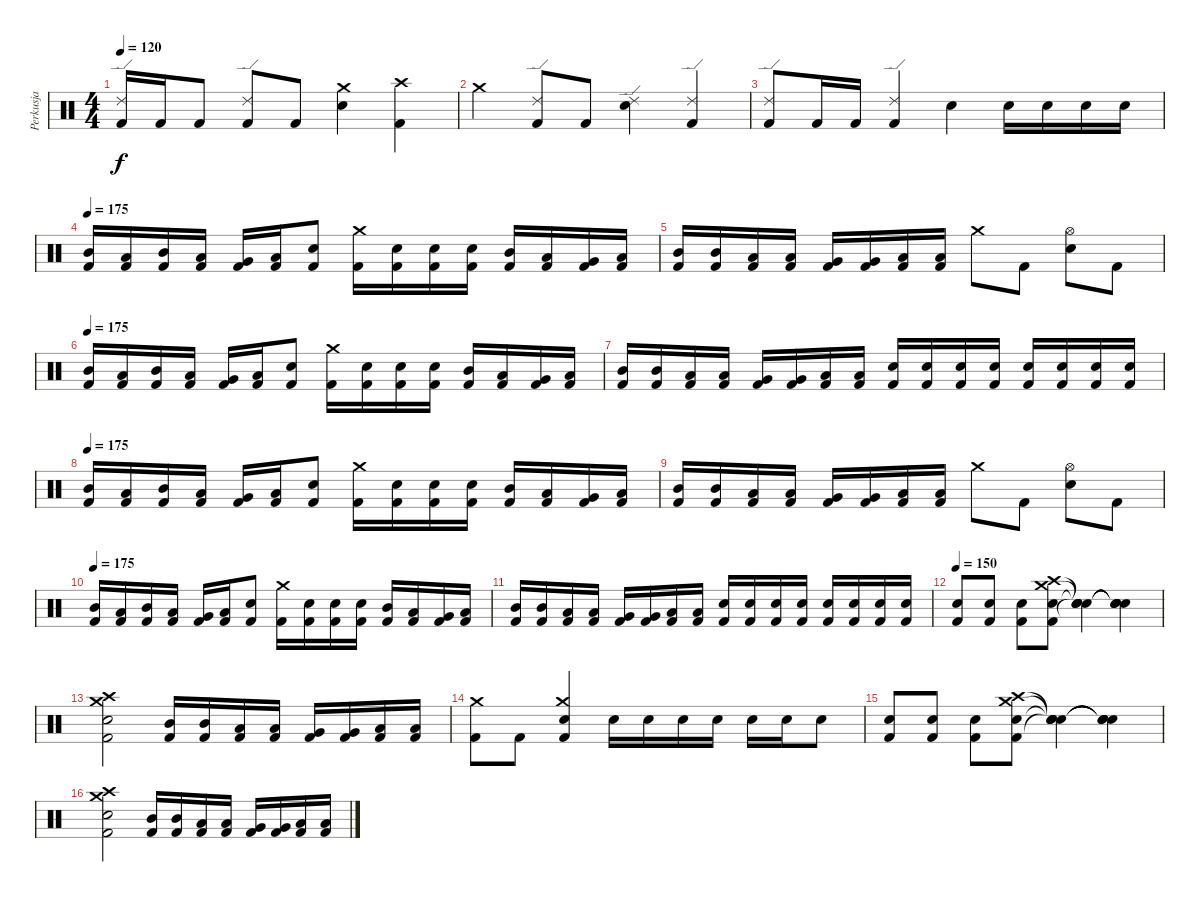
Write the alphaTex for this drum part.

\track ("Perkusja" "Perkusja") {instrument percussion}
\staff {score}
\articulation defaults
\ts (4 4)
\tempo 120
\clef neutral
\ks c
("Ride (edge) 2" "Kick (hit) 2").16{dy f} "Kick (hit) 2".16 "Kick (hit) 2".8 ("Ride (edge) 2" "Kick (hit) 2").8 "Kick (hit) 2".8 ("Crash medium (hit)" "Electric Snare (hit)").4 ("Crash high (hit)" "Kick (hit) 2").4 |
"Crash medium (hit)".4 ("Ride (edge) 2" "Kick (hit) 2").8 "Kick (hit) 2".8 ("Ride (edge) 2" "Electric Snare (hit)").4 ("Ride (edge) 2" "Kick (hit) 2").4 |
("Ride (edge) 2" "Kick (hit) 2").8 "Kick (hit) 2".16 "Kick (hit) 2".16 ("Ride (edge) 2" "Kick (hit) 2").4 "Electric Snare (hit)".4 "Electric Snare (hit)".16 "Electric Snare (hit)".16 "Electric Snare (hit)".16 "Electric Snare (hit)".16 |
\tempo 175
("Kick (hit) 2" "Mid Tom (hit)").16{volume 13} ("Kick (hit) 2" "Low Tom (hit)").16 ("Kick (hit) 2" "Mid Tom (hit)").16 ("Kick (hit) 2" "Low Tom (hit)").16 ("Kick (hit) 2" "Very Low Tom (hit)").16 ("Kick (hit) 2" "Low Tom (hit)").16 ("Electric Snare (hit)" "Kick (hit) 2").8 ("Crash medium (hit)" "Kick (hit) 2").16 ("Electric Snare (hit)" "Kick (hit) 2").16 ("Electric Snare (hit)" "Kick (hit) 2").16 ("Electric Snare (hit)" "Kick (hit) 2").16 ("Mid Tom (hit)" "Kick (hit) 2").16 ("Low Tom (hit)" "Kick (hit) 2").16 ("Very Low Tom (hit)" "Kick (hit) 2").16 ("Low Floor Tom (hit)" "Kick (hit) 2").16 |
("Mid Tom (hit)" "Kick (hit) 2").16 ("Mid Tom (hit)" "Kick (hit) 2").16 ("Low Tom (hit)" "Kick (hit) 2").16 ("Low Tom (hit)" "Kick (hit) 2").16 ("Very Low Tom (hit)" "Kick (hit) 2").16 ("Very Low Tom (hit)" "Kick (hit) 2").16 ("Low Floor Tom (hit)" "Kick (hit) 2").16 ("Low Floor Tom (hit)" "Kick (hit) 2").16 "Crash medium (hit)".8 "Kick (hit) 2".8 ("Hi-Hat (open)" "Electric Snare (hit)").8 "Kick (hit) 2".8 |
\tempo 175
("Kick (hit) 2" "Mid Tom (hit)").16{volume 13} ("Kick (hit) 2" "Low Tom (hit)").16 ("Kick (hit) 2" "Mid Tom (hit)").16 ("Kick (hit) 2" "Low Tom (hit)").16 ("Kick (hit) 2" "Very Low Tom (hit)").16 ("Kick (hit) 2" "Low Tom (hit)").16 ("Electric Snare (hit)" "Kick (hit) 2").8 ("Crash medium (hit)" "Kick (hit) 2").16 ("Electric Snare (hit)" "Kick (hit) 2").16 ("Electric Snare (hit)" "Kick (hit) 2").16 ("Electric Snare (hit)" "Kick (hit) 2").16 ("Mid Tom (hit)" "Kick (hit) 2").16 ("Low Tom (hit)" "Kick (hit) 2").16 ("Very Low Tom (hit)" "Kick (hit) 2").16 ("Low Floor Tom (hit)" "Kick (hit) 2").16 |
("Mid Tom (hit)" "Kick (hit) 2").16 ("Mid Tom (hit)" "Kick (hit) 2").16 ("Low Tom (hit)" "Kick (hit) 2").16 ("Low Tom (hit)" "Kick (hit) 2").16 ("Very Low Tom (hit)" "Kick (hit) 2").16 ("Very Low Tom (hit)" "Kick (hit) 2").16 ("Low Floor Tom (hit)" "Kick (hit) 2").16 ("Low Floor Tom (hit)" "Kick (hit) 2").16 ("Kick (hit) 2" "Electric Snare (hit)").16 ("Kick (hit) 2" "Electric Snare (hit)").16 ("Kick (hit) 2" "Electric Snare (hit)").16 ("Kick (hit) 2" "Electric Snare (hit)").16 ("Kick (hit) 2" "Snare (hit) 2").16 ("Kick (hit) 2" "Snare (hit) 2").16 ("Kick (hit) 2" "Snare (hit) 2").16 ("Kick (hit) 2" "Snare (hit) 2").16 |
\tempo 175
("Kick (hit) 2" "Mid Tom (hit)").16{volume 13} ("Kick (hit) 2" "Low Tom (hit)").16 ("Kick (hit) 2" "Mid Tom (hit)").16 ("Kick (hit) 2" "Low Tom (hit)").16 ("Kick (hit) 2" "Very Low Tom (hit)").16 ("Kick (hit) 2" "Low Tom (hit)").16 ("Electric Snare (hit)" "Kick (hit) 2").8 ("Crash medium (hit)" "Kick (hit) 2").16 ("Electric Snare (hit)" "Kick (hit) 2").16 ("Electric Snare (hit)" "Kick (hit) 2").16 ("Electric Snare (hit)" "Kick (hit) 2").16 ("Mid Tom (hit)" "Kick (hit) 2").16 ("Low Tom (hit)" "Kick (hit) 2").16 ("Very Low Tom (hit)" "Kick (hit) 2").16 ("Low Floor Tom (hit)" "Kick (hit) 2").16 |
("Mid Tom (hit)" "Kick (hit) 2").16 ("Mid Tom (hit)" "Kick (hit) 2").16 ("Low Tom (hit)" "Kick (hit) 2").16 ("Low Tom (hit)" "Kick (hit) 2").16 ("Very Low Tom (hit)" "Kick (hit) 2").16 ("Very Low Tom (hit)" "Kick (hit) 2").16 ("Low Floor Tom (hit)" "Kick (hit) 2").16 ("Low Floor Tom (hit)" "Kick (hit) 2").16 "Crash medium (hit)".8 "Kick (hit) 2".8 ("Hi-Hat (open)" "Electric Snare (hit)").8 "Kick (hit) 2".8 |
\tempo 175
("Kick (hit) 2" "Mid Tom (hit)").16{volume 13} ("Kick (hit) 2" "Low Tom (hit)").16 ("Kick (hit) 2" "Mid Tom (hit)").16 ("Kick (hit) 2" "Low Tom (hit)").16 ("Kick (hit) 2" "Very Low Tom (hit)").16 ("Kick (hit) 2" "Low Tom (hit)").16 ("Electric Snare (hit)" "Kick (hit) 2").8 ("Crash medium (hit)" "Kick (hit) 2").16 ("Electric Snare (hit)" "Kick (hit) 2").16 ("Electric Snare (hit)" "Kick (hit) 2").16 ("Electric Snare (hit)" "Kick (hit) 2").16 ("Mid Tom (hit)" "Kick (hit) 2").16 ("Low Tom (hit)" "Kick (hit) 2").16 ("Very Low Tom (hit)" "Kick (hit) 2").16 ("Low Floor Tom (hit)" "Kick (hit) 2").16 |
("Mid Tom (hit)" "Kick (hit) 2").16 ("Mid Tom (hit)" "Kick (hit) 2").16 ("Low Tom (hit)" "Kick (hit) 2").16 ("Low Tom (hit)" "Kick (hit) 2").16 ("Very Low Tom (hit)" "Kick (hit) 2").16 ("Very Low Tom (hit)" "Kick (hit) 2").16 ("Low Floor Tom (hit)" "Kick (hit) 2").16 ("Low Floor Tom (hit)" "Kick (hit) 2").16 ("Kick (hit) 2" "Electric Snare (hit)").16 ("Kick (hit) 2" "Electric Snare (hit)").16 ("Kick (hit) 2" "Electric Snare (hit)").16 ("Kick (hit) 2" "Electric Snare (hit)").16 ("Kick (hit) 2" "Snare (hit) 2").16 ("Kick (hit) 2" "Snare (hit) 2").16 ("Kick (hit) 2" "Snare (hit) 2").16 ("Kick (hit) 2" "Snare (hit) 2").16 |
\tempo 150
("Snare (hit) 2" "Kick (hit) 2").8 ("Snare (hit) 2" "Kick (hit) 2").8 ("Snare (hit) 2" "Kick (hit) 2").8 ("Crash high (hit)" "Kick (hit) 2" "Crash medium (hit)" "Electric Snare (hit)").8 ("Snare (hit)"{t} "Snare (hit)"{t} "Snare (hit)"{t} "Snare (hit)"{t}).4 ("Snare (hit)"{t} "Snare (hit)"{t} "Snare (hit)"{t} "Snare (hit)"{t}).4 |
("Crash medium (hit)" "Crash high (hit)" "Electric Snare (hit)" "Kick (hit) 2").2 ("Mid Tom (hit)" "Kick (hit) 2").16 ("Mid Tom (hit)" "Kick (hit) 2").16 ("Low Tom (hit)" "Kick (hit) 2").16 ("Low Tom (hit)" "Kick (hit) 2").16 ("Very Low Tom (hit)" "Kick (hit) 2").16 ("Very Low Tom (hit)" "Kick (hit) 2").16 ("Low Floor Tom (hit)" "Kick (hit) 2").16 ("Low Floor Tom (hit)" "Kick (hit) 2").16 |
("Crash medium (hit)" "Kick (hit) 2").8 "Kick (hit) 2".8 ("Crash medium (hit)" "Electric Snare (hit)" "Kick (hit) 2").4 "Electric Snare (hit)".16 "Electric Snare (hit)".16 "Electric Snare (hit)".16 "Electric Snare (hit)".16 "Snare (hit) 2".16 "Snare (hit) 2".16 "Snare (hit) 2".8 |
("Snare (hit) 2" "Kick (hit) 2").8 ("Snare (hit) 2" "Kick (hit) 2").8 ("Snare (hit) 2" "Kick (hit) 2").8 ("Crash high (hit)" "Kick (hit) 2" "Crash medium (hit)" "Electric Snare (hit)").8 ("Snare (hit)"{t} "Snare (hit)"{t} "Snare (hit)"{t} "Snare (hit)"{t}).4 ("Snare (hit)"{t} "Snare (hit)"{t} "Snare (hit)"{t} "Snare (hit)"{t}).4 |
("Crash medium (hit)" "Crash high (hit)" "Electric Snare (hit)" "Kick (hit) 2").2 ("Mid Tom (hit)" "Kick (hit) 2").16 ("Mid Tom (hit)" "Kick (hit) 2").16 ("Low Tom (hit)" "Kick (hit) 2").16 ("Low Tom (hit)" "Kick (hit) 2").16 ("Very Low Tom (hit)" "Kick (hit) 2").16 ("Very Low Tom (hit)" "Kick (hit) 2").16 ("Low Floor Tom (hit)" "Kick (hit) 2").16 ("Low Floor Tom (hit)" "Kick (hit) 2").16
